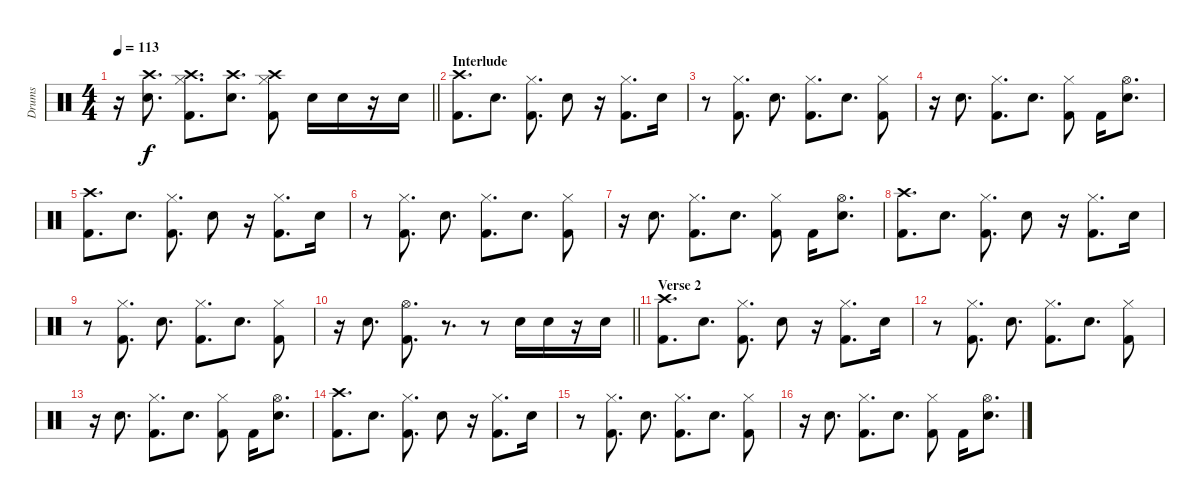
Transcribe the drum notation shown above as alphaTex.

\track ("Drums" "Drums") {instrument percussion}
\staff {score}
\articulation defaults
\ts (4 4)
\tempo 113
\clef neutral
\barLineRight lightlight
\ks c
r.16{dy f} ("Crash high (hit)" "Electric Snare (hit)").8{d} ("Crash high (hit)" "Hi-Hat (closed)" "Kick (hit) 2").8{d} ("Crash high (hit)" "Electric Snare (hit)").8{d} ("Crash high (hit)" "Hi-Hat (closed)" "Kick (hit) 2").8 "Electric Snare (hit)".16 "Electric Snare (hit)".16 r.16 "Electric Snare (hit)".16 |
\section ("" "Interlude")
("Crash high (hit)" "Kick (hit) 2").8{d} "Electric Snare (hit)".8{d} ("Hi-Hat (closed)" "Kick (hit) 2").8{d} "Electric Snare (hit)".8 r.16 ("Hi-Hat (closed)" "Kick (hit) 2").8{d} "Electric Snare (hit)".16 |
r.8 ("Hi-Hat (closed)" "Kick (hit) 2").8{d} "Electric Snare (hit)".8{d} ("Hi-Hat (closed)" "Kick (hit) 2").8{d} "Electric Snare (hit)".8{d} ("Hi-Hat (closed)" "Kick (hit) 2").8 |
r.16 "Electric Snare (hit)".8{d} ("Hi-Hat (closed)" "Kick (hit) 2").8{d} "Electric Snare (hit)".8{d} ("Hi-Hat (closed)" "Kick (hit) 2").8 "Kick (hit) 2".16 ("Hi-Hat (open)" "Electric Snare (hit)").8{d} |
("Crash high (hit)" "Kick (hit) 2").8{d} "Electric Snare (hit)".8{d} ("Hi-Hat (closed)" "Kick (hit) 2").8{d} "Electric Snare (hit)".8 r.16 ("Hi-Hat (closed)" "Kick (hit) 2").8{d} "Electric Snare (hit)".16 |
r.8 ("Hi-Hat (closed)" "Kick (hit) 2").8{d} "Electric Snare (hit)".8{d} ("Hi-Hat (closed)" "Kick (hit) 2").8{d} "Electric Snare (hit)".8{d} ("Hi-Hat (closed)" "Kick (hit) 2").8 |
r.16 "Electric Snare (hit)".8{d} ("Hi-Hat (closed)" "Kick (hit) 2").8{d} "Electric Snare (hit)".8{d} ("Hi-Hat (closed)" "Kick (hit) 2").8 "Kick (hit) 2".16 ("Hi-Hat (open)" "Electric Snare (hit)").8{d} |
("Crash high (hit)" "Kick (hit) 2").8{d} "Electric Snare (hit)".8{d} ("Hi-Hat (closed)" "Kick (hit) 2").8{d} "Electric Snare (hit)".8 r.16 ("Hi-Hat (closed)" "Kick (hit) 2").8{d} "Electric Snare (hit)".16 |
r.8 ("Hi-Hat (closed)" "Kick (hit) 2").8{d} "Electric Snare (hit)".8{d} ("Hi-Hat (closed)" "Kick (hit) 2").8{d} "Electric Snare (hit)".8{d} ("Hi-Hat (closed)" "Kick (hit) 2").8 |
\barLineRight lightlight
r.16 "Electric Snare (hit)".8{d} ("Hi-Hat (open)" "Kick (hit) 2").8{d} r.8{d} r.8 "Electric Snare (hit)".16 "Electric Snare (hit)".16 r.16 "Electric Snare (hit)".16 |
\section ("" "Verse 2")
("Crash high (hit)" "Kick (hit) 2").8{d} "Electric Snare (hit)".8{d} ("Hi-Hat (closed)" "Kick (hit) 2").8{d} "Electric Snare (hit)".8 r.16 ("Hi-Hat (closed)" "Kick (hit) 2").8{d} "Electric Snare (hit)".16 |
r.8 ("Hi-Hat (closed)" "Kick (hit) 2").8{d} "Electric Snare (hit)".8{d} ("Hi-Hat (closed)" "Kick (hit) 2").8{d} "Electric Snare (hit)".8{d} ("Hi-Hat (closed)" "Kick (hit) 2").8 |
r.16 "Electric Snare (hit)".8{d} ("Hi-Hat (closed)" "Kick (hit) 2").8{d} "Electric Snare (hit)".8{d} ("Hi-Hat (closed)" "Kick (hit) 2").8 "Kick (hit) 2".16 ("Hi-Hat (open)" "Electric Snare (hit)").8{d} |
("Crash high (hit)" "Kick (hit) 2").8{d} "Electric Snare (hit)".8{d} ("Hi-Hat (closed)" "Kick (hit) 2").8{d} "Electric Snare (hit)".8 r.16 ("Hi-Hat (closed)" "Kick (hit) 2").8{d} "Electric Snare (hit)".16 |
r.8 ("Hi-Hat (closed)" "Kick (hit) 2").8{d} "Electric Snare (hit)".8{d} ("Hi-Hat (closed)" "Kick (hit) 2").8{d} "Electric Snare (hit)".8{d} ("Hi-Hat (closed)" "Kick (hit) 2").8 |
r.16 "Electric Snare (hit)".8{d} ("Hi-Hat (closed)" "Kick (hit) 2").8{d} "Electric Snare (hit)".8{d} ("Hi-Hat (closed)" "Kick (hit) 2").8 "Kick (hit) 2".16 ("Hi-Hat (open)" "Electric Snare (hit)").8{d}
